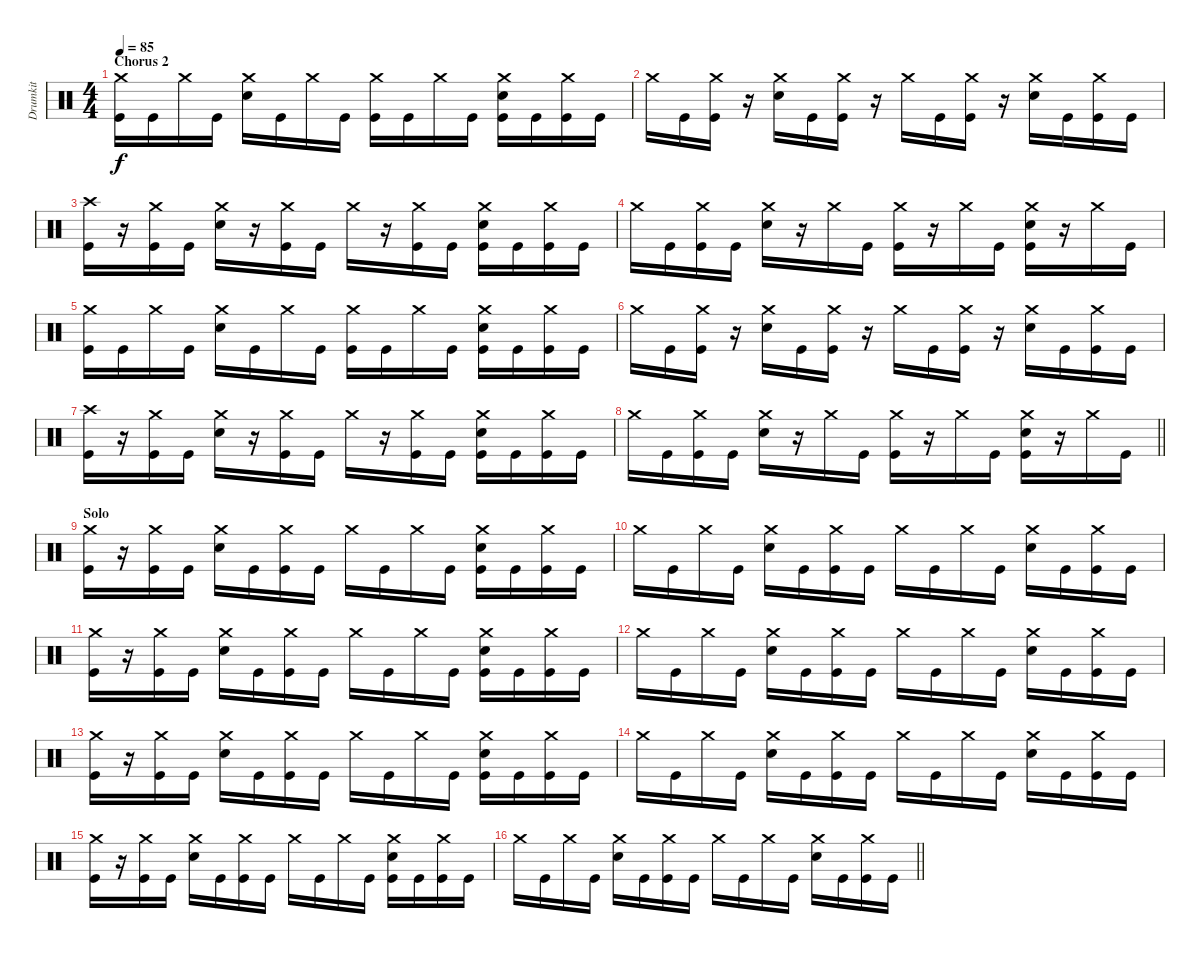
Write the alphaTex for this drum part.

\track ("Drumkit" "Drumkit") {instrument percussion}
\staff {score}
\articulation defaults
\ts (4 4)
\section ("" "Chorus 2")
\tempo 85
\clef neutral
\ks c
("Crash medium (hit)" "Kick (hit)").16{dy f} "Kick (hit)".16 "Crash medium (hit)".16 "Kick (hit)".16 ("Crash medium (hit)" "Snare (hit) 2").16 "Kick (hit)".16 "Crash medium (hit)".16 "Kick (hit)".16 ("Crash medium (hit)" "Kick (hit)").16 "Kick (hit)".16 "Crash medium (hit)".16 "Kick (hit)".16 ("Crash medium (hit)" "Snare (hit) 2" "Kick (hit)").16 "Kick (hit)".16 ("Crash medium (hit)" "Kick (hit)").16 "Kick (hit)".16 |
"Crash medium (hit)".16 "Kick (hit)".16 ("Crash medium (hit)" "Kick (hit)").16 r.16 ("Crash medium (hit)" "Snare (hit) 2").16 "Kick (hit)".16 ("Crash medium (hit)" "Kick (hit)").16 r.16 "Crash medium (hit)".16 "Kick (hit)".16 ("Crash medium (hit)" "Kick (hit)").16 r.16 ("Crash medium (hit)" "Snare (hit) 2").16 "Kick (hit)".16 ("Crash medium (hit)" "Kick (hit)").16 "Kick (hit)".16 |
("Crash high (hit)" "Kick (hit)").16 r.16 ("Crash medium (hit)" "Kick (hit)").16 "Kick (hit)".16 ("Crash medium (hit)" "Snare (hit) 2").16 r.16 ("Crash medium (hit)" "Kick (hit)").16 "Kick (hit)".16 "Crash medium (hit)".16 r.16 ("Crash medium (hit)" "Kick (hit)").16 "Kick (hit)".16 ("Crash medium (hit)" "Snare (hit) 2" "Kick (hit)").16 "Kick (hit)".16 ("Crash medium (hit)" "Kick (hit)").16 "Kick (hit)".16 |
"Crash medium (hit)".16 "Kick (hit)".16 ("Crash medium (hit)" "Kick (hit)").16 "Kick (hit)".16 ("Crash medium (hit)" "Snare (hit) 2").16 r.16 "Crash medium (hit)".16 "Kick (hit)".16 ("Crash medium (hit)" "Kick (hit)").16 r.16 "Crash medium (hit)".16 "Kick (hit)".16 ("Crash medium (hit)" "Snare (hit) 2" "Kick (hit)").16 r.16 "Crash medium (hit)".16 "Kick (hit)".16 |
("Crash medium (hit)" "Kick (hit)").16 "Kick (hit)".16 "Crash medium (hit)".16 "Kick (hit)".16 ("Crash medium (hit)" "Snare (hit) 2").16 "Kick (hit)".16 "Crash medium (hit)".16 "Kick (hit)".16 ("Crash medium (hit)" "Kick (hit)").16 "Kick (hit)".16 "Crash medium (hit)".16 "Kick (hit)".16 ("Crash medium (hit)" "Snare (hit) 2" "Kick (hit)").16 "Kick (hit)".16 ("Crash medium (hit)" "Kick (hit)").16 "Kick (hit)".16 |
"Crash medium (hit)".16 "Kick (hit)".16 ("Crash medium (hit)" "Kick (hit)").16 r.16 ("Crash medium (hit)" "Snare (hit) 2").16 "Kick (hit)".16 ("Crash medium (hit)" "Kick (hit)").16 r.16 "Crash medium (hit)".16 "Kick (hit)".16 ("Crash medium (hit)" "Kick (hit)").16 r.16 ("Crash medium (hit)" "Snare (hit) 2").16 "Kick (hit)".16 ("Crash medium (hit)" "Kick (hit)").16 "Kick (hit)".16 |
("Crash high (hit)" "Kick (hit)").16 r.16 ("Crash medium (hit)" "Kick (hit)").16 "Kick (hit)".16 ("Crash medium (hit)" "Snare (hit) 2").16 r.16 ("Crash medium (hit)" "Kick (hit)").16 "Kick (hit)".16 "Crash medium (hit)".16 r.16 ("Crash medium (hit)" "Kick (hit)").16 "Kick (hit)".16 ("Crash medium (hit)" "Snare (hit) 2" "Kick (hit)").16 "Kick (hit)".16 ("Crash medium (hit)" "Kick (hit)").16 "Kick (hit)".16 |
\barLineRight lightlight "Crash medium (hit)".16 "Kick (hit)".16
("Crash medium (hit)" "Kick (hit)").16 "Kick (hit)".16 ("Crash medium (hit)" "Snare (hit) 2").16 r.16 "Crash medium (hit)".16 "Kick (hit)".16 ("Crash medium (hit)" "Kick (hit)").16 r.16 "Crash medium (hit)".16 "Kick (hit)".16 ("Crash medium (hit)" "Snare (hit) 2" "Kick (hit)").16 r.16 "Crash medium (hit)".16 "Kick (hit)".16 |
\section ("" "Solo")
("Crash medium (hit)" "Kick (hit)").16 r.16 ("Crash medium (hit)" "Kick (hit)").16 "Kick (hit)".16 ("Crash medium (hit)" "Snare (hit) 2").16 "Kick (hit)".16 ("Crash medium (hit)" "Kick (hit)").16 "Kick (hit)".16 "Crash medium (hit)".16 "Kick (hit)".16 "Crash medium (hit)".16 "Kick (hit)".16 ("Crash medium (hit)" "Snare (hit) 2" "Kick (hit)").16 "Kick (hit)".16 ("Crash medium (hit)" "Kick (hit)").16 "Kick (hit)".16 |
"Crash medium (hit)".16 "Kick (hit)".16 "Crash medium (hit)".16 "Kick (hit)".16 ("Crash medium (hit)" "Snare (hit) 2").16 "Kick (hit)".16 ("Crash medium (hit)" "Kick (hit)").16 "Kick (hit)".16 "Crash medium (hit)".16 "Kick (hit)".16 "Crash medium (hit)".16 "Kick (hit)".16 ("Crash medium (hit)" "Snare (hit) 2").16 "Kick (hit)".16 ("Crash medium (hit)" "Kick (hit)").16 "Kick (hit)".16 |
("Crash medium (hit)" "Kick (hit)").16 r.16 ("Crash medium (hit)" "Kick (hit)").16 "Kick (hit)".16 ("Crash medium (hit)" "Snare (hit) 2").16 "Kick (hit)".16 ("Crash medium (hit)" "Kick (hit)").16 "Kick (hit)".16 "Crash medium (hit)".16 "Kick (hit)".16 "Crash medium (hit)".16 "Kick (hit)".16 ("Crash medium (hit)" "Snare (hit) 2" "Kick (hit)").16 "Kick (hit)".16 ("Crash medium (hit)" "Kick (hit)").16 "Kick (hit)".16 |
"Crash medium (hit)".16 "Kick (hit)".16 "Crash medium (hit)".16 "Kick (hit)".16 ("Crash medium (hit)" "Snare (hit) 2").16 "Kick (hit)".16 ("Crash medium (hit)" "Kick (hit)").16 "Kick (hit)".16 "Crash medium (hit)".16 "Kick (hit)".16 "Crash medium (hit)".16 "Kick (hit)".16 ("Crash medium (hit)" "Snare (hit) 2").16 "Kick (hit)".16 ("Crash medium (hit)" "Kick (hit)").16 "Kick (hit)".16 |
("Crash medium (hit)" "Kick (hit)").16 r.16 ("Crash medium (hit)" "Kick (hit)").16 "Kick (hit)".16 ("Crash medium (hit)" "Snare (hit) 2").16 "Kick (hit)".16 ("Crash medium (hit)" "Kick (hit)").16 "Kick (hit)".16 "Crash medium (hit)".16 "Kick (hit)".16 "Crash medium (hit)".16 "Kick (hit)".16 ("Crash medium (hit)" "Snare (hit) 2" "Kick (hit)").16 "Kick (hit)".16 ("Crash medium (hit)" "Kick (hit)").16 "Kick (hit)".16 |
"Crash medium (hit)".16 "Kick (hit)".16 "Crash medium (hit)".16 "Kick (hit)".16 ("Crash medium (hit)" "Snare (hit) 2").16 "Kick (hit)".16 ("Crash medium (hit)" "Kick (hit)").16 "Kick (hit)".16 "Crash medium (hit)".16 "Kick (hit)".16 "Crash medium (hit)".16 "Kick (hit)".16 ("Crash medium (hit)" "Snare (hit) 2").16 "Kick (hit)".16 ("Crash medium (hit)" "Kick (hit)").16 "Kick (hit)".16 |
("Crash medium (hit)" "Kick (hit)").16 r.16 ("Crash medium (hit)" "Kick (hit)").16 "Kick (hit)".16 ("Crash medium (hit)" "Snare (hit) 2").16 "Kick (hit)".16 ("Crash medium (hit)" "Kick (hit)").16 "Kick (hit)".16 "Crash medium (hit)".16 "Kick (hit)".16 "Crash medium (hit)".16 "Kick (hit)".16 ("Crash medium (hit)" "Snare (hit) 2" "Kick (hit)").16 "Kick (hit)".16 ("Crash medium (hit)" "Kick (hit)").16 "Kick (hit)".16 |
\barLineRight lightlight "Crash medium (hit)".16 "Kick (hit)".16 "Crash medium (hit)".16 "Kick (hit)".16
("Crash medium (hit)" "Snare (hit) 2").16 "Kick (hit)".16 ("Crash medium (hit)" "Kick (hit)").16 "Kick (hit)".16 "Crash medium (hit)".16 "Kick (hit)".16 "Crash medium (hit)".16 "Kick (hit)".16 ("Crash medium (hit)" "Snare (hit) 2").16 "Kick (hit)".16 ("Crash medium (hit)" "Kick (hit)").16 "Kick (hit)".16
